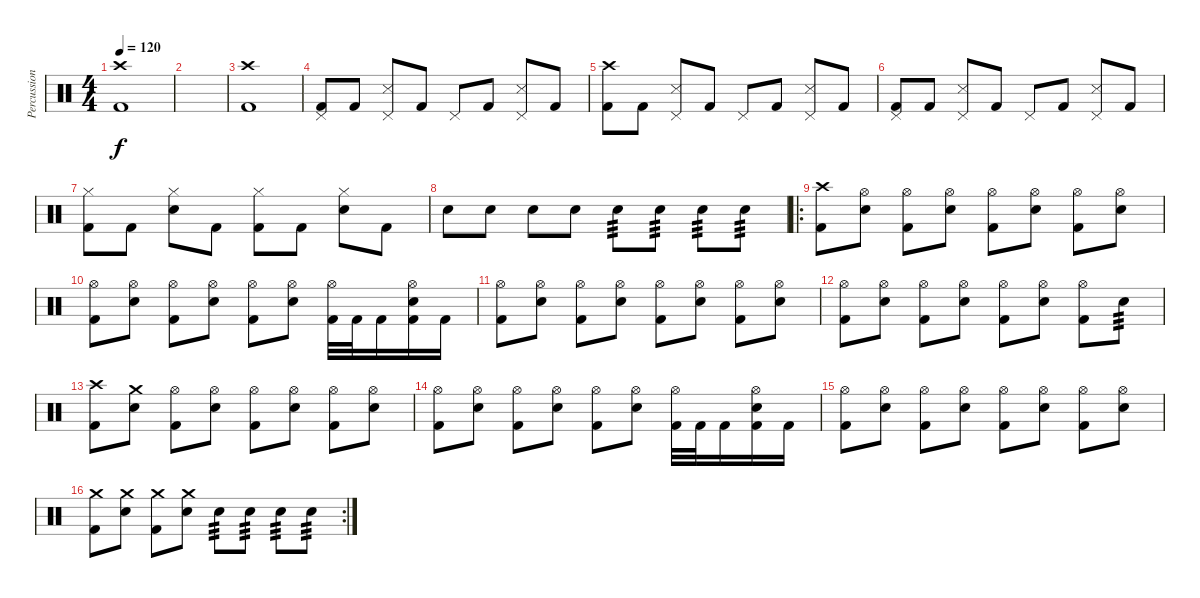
\track ("Percussions" "Percussion") {instrument percussion}
\staff {score}
\articulation defaults
\ts (4 4)
\tempo 120
\clef neutral
\ks c
("Crash high (hit)" "Kick (hit) 2").1{dy f} |
|
("Crash high (hit)" "Kick (hit) 2").1 |
("Pedal Hi-Hat (hit)" "Kick (hit) 2").8 "Kick (hit) 2".8 ("Pedal Hi-Hat (hit)" "Snare (side stick) 3").8 "Kick (hit) 2".8 "Pedal Hi-Hat (hit)".8 "Kick (hit) 2".8 ("Pedal Hi-Hat (hit)" "Snare (side stick) 3").8 "Kick (hit) 2".8 |
("Crash high (hit)" "Kick (hit) 2").8 "Kick (hit) 2".8 ("Pedal Hi-Hat (hit)" "Snare (side stick) 3").8 "Kick (hit) 2".8 "Pedal Hi-Hat (hit)".8 "Kick (hit) 2".8 ("Pedal Hi-Hat (hit)" "Snare (side stick) 3").8 "Kick (hit) 2".8 |
("Pedal Hi-Hat (hit)" "Kick (hit) 2").8 "Kick (hit) 2".8 ("Pedal Hi-Hat (hit)" "Snare (side stick) 3").8 "Kick (hit) 2".8 "Pedal Hi-Hat (hit)".8 "Kick (hit) 2".8 ("Pedal Hi-Hat (hit)" "Snare (side stick) 3").8 "Kick (hit) 2".8 |
("Hi-Hat (closed)" "Kick (hit) 2").8 "Kick (hit) 2".8 ("Hi-Hat (closed)" "Snare (hit) 2").8 "Kick (hit) 2".8 ("Hi-Hat (closed)" "Kick (hit) 2").8 "Kick (hit) 2".8 ("Hi-Hat (closed)" "Snare (hit) 2").8 "Kick (hit) 2".8 |
"Snare (hit) 2".8 "Snare (hit) 2".8 "Snare (hit) 2".8 "Snare (hit) 2".8 "Snare (hit) 2".8{tp 3} "Snare (hit) 2".8{tp 3} "Snare (hit) 2".8{tp 3} "Snare (hit) 2".8{tp 3} |
\ro
("Crash high (hit)" "Kick (hit) 2").8 ("Hi-Hat (open)" "Snare (hit) 2").8 ("Hi-Hat (open)" "Kick (hit) 2").8 ("Hi-Hat (open)" "Snare (hit) 2").8 ("Hi-Hat (open)" "Kick (hit) 2").8 ("Hi-Hat (open)" "Snare (hit) 2").8 ("Hi-Hat (open)" "Kick (hit) 2").8 ("Hi-Hat (open)" "Snare (hit) 2").8 |
("Hi-Hat (open)" "Kick (hit) 2").8 ("Hi-Hat (open)" "Snare (hit) 2").8 ("Hi-Hat (open)" "Kick (hit) 2").8 ("Hi-Hat (open)" "Snare (hit) 2").8 ("Hi-Hat (open)" "Kick (hit) 2").8 ("Hi-Hat (open)" "Snare (hit) 2").8 ("Hi-Hat (open)" "Kick (hit) 2").32 "Kick (hit) 2".32 "Kick (hit) 2".16 ("Hi-Hat (open)" "Snare (hit) 2" "Kick (hit) 2").16 "Kick (hit) 2".16 |
("Hi-Hat (open)" "Kick (hit) 2").8 ("Hi-Hat (open)" "Snare (hit) 2").8 ("Hi-Hat (open)" "Kick (hit) 2").8 ("Hi-Hat (open)" "Snare (hit) 2").8 ("Hi-Hat (open)" "Kick (hit) 2").8 ("Hi-Hat (open)" "Snare (hit) 2").8 ("Hi-Hat (open)" "Kick (hit) 2").8 ("Hi-Hat (open)" "Snare (hit) 2").8 |
("Hi-Hat (open)" "Kick (hit) 2").8 ("Hi-Hat (open)" "Snare (hit) 2").8 ("Hi-Hat (open)" "Kick (hit) 2").8 ("Hi-Hat (open)" "Snare (hit) 2").8 ("Hi-Hat (open)" "Kick (hit) 2").8 ("Hi-Hat (open)" "Snare (hit) 2").8 ("Hi-Hat (open)" "Kick (hit) 2").8 "Snare (hit) 2".8{tp 3} |
("Crash high (hit)" "Kick (hit) 2").8 ("Crash medium (hit)" "Snare (hit) 2").8 ("Hi-Hat (open)" "Kick (hit) 2").8 ("Hi-Hat (open)" "Snare (hit) 2").8 ("Hi-Hat (open)" "Kick (hit) 2").8 ("Hi-Hat (open)" "Snare (hit) 2").8 ("Hi-Hat (open)" "Kick (hit) 2").8 ("Hi-Hat (open)" "Snare (hit) 2").8 |
("Hi-Hat (open)" "Kick (hit) 2").8 ("Hi-Hat (open)" "Snare (hit) 2").8 ("Hi-Hat (open)" "Kick (hit) 2").8 ("Hi-Hat (open)" "Snare (hit) 2").8 ("Hi-Hat (open)" "Kick (hit) 2").8 ("Hi-Hat (open)" "Snare (hit) 2").8 ("Hi-Hat (open)" "Kick (hit) 2").32 "Kick (hit) 2".32 "Kick (hit) 2".16 ("Hi-Hat (open)" "Snare (hit) 2" "Kick (hit) 2").16 "Kick (hit) 2".16 |
("Hi-Hat (open)" "Kick (hit) 2").8 ("Hi-Hat (open)" "Snare (hit) 2").8 ("Hi-Hat (open)" "Kick (hit) 2").8 ("Hi-Hat (open)" "Snare (hit) 2").8 ("Hi-Hat (open)" "Kick (hit) 2").8 ("Hi-Hat (open)" "Snare (hit) 2").8 ("Hi-Hat (open)" "Kick (hit) 2").8 ("Hi-Hat (open)" "Snare (hit) 2").8 |
\rc 2
("Crash medium (hit)" "Kick (hit) 2").8 ("Crash medium (hit)" "Snare (hit) 2").8 ("Crash medium (hit)" "Kick (hit) 2").8 ("Crash medium (hit)" "Snare (hit) 2").8 "Snare (hit) 2".8{tp 3} "Snare (hit) 2".8{tp 3} "Snare (hit) 2".8{tp 3} "Snare (hit) 2".8{tp 3}
